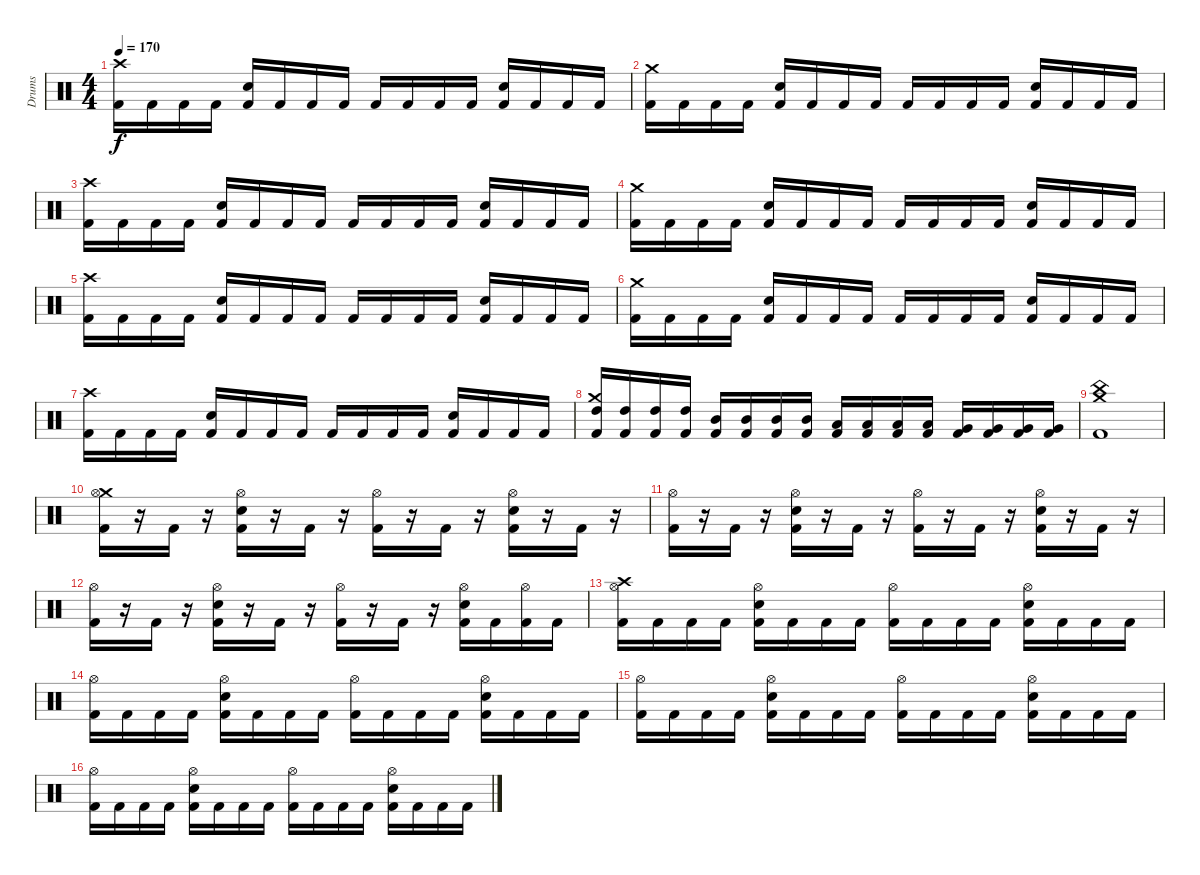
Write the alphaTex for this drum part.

\track ("Drums" "Drums") {instrument percussion}
\staff {score}
\articulation defaults
\ts (4 4)
\tempo 170
\clef neutral
\ks c
("Crash high (hit)" "Kick (hit) 2").16{dy f} "Kick (hit) 2".16 "Kick (hit) 2".16 "Kick (hit) 2".16 ("Electric Snare (hit)" "Kick (hit) 2").16 "Kick (hit) 2".16 "Kick (hit) 2".16 "Kick (hit) 2".16 "Kick (hit) 2".16 "Kick (hit) 2".16 "Kick (hit) 2".16 "Kick (hit) 2".16 ("Electric Snare (hit)" "Kick (hit) 2").16 "Kick (hit) 2".16 "Kick (hit) 2".16 "Kick (hit) 2".16 |
("Crash medium (hit)" "Kick (hit) 2").16 "Kick (hit) 2".16 "Kick (hit) 2".16 "Kick (hit) 2".16 ("Electric Snare (hit)" "Kick (hit) 2").16 "Kick (hit) 2".16 "Kick (hit) 2".16 "Kick (hit) 2".16 "Kick (hit) 2".16 "Kick (hit) 2".16 "Kick (hit) 2".16 "Kick (hit) 2".16 ("Electric Snare (hit)" "Kick (hit) 2").16 "Kick (hit) 2".16 "Kick (hit) 2".16 "Kick (hit) 2".16 |
("Crash high (hit)" "Kick (hit) 2").16 "Kick (hit) 2".16 "Kick (hit) 2".16 "Kick (hit) 2".16 ("Electric Snare (hit)" "Kick (hit) 2").16 "Kick (hit) 2".16 "Kick (hit) 2".16 "Kick (hit) 2".16 "Kick (hit) 2".16 "Kick (hit) 2".16 "Kick (hit) 2".16 "Kick (hit) 2".16 ("Electric Snare (hit)" "Kick (hit) 2").16 "Kick (hit) 2".16 "Kick (hit) 2".16 "Kick (hit) 2".16 |
("Crash medium (hit)" "Kick (hit) 2").16 "Kick (hit) 2".16 "Kick (hit) 2".16 "Kick (hit) 2".16 ("Electric Snare (hit)" "Kick (hit) 2").16 "Kick (hit) 2".16 "Kick (hit) 2".16 "Kick (hit) 2".16 "Kick (hit) 2".16 "Kick (hit) 2".16 "Kick (hit) 2".16 "Kick (hit) 2".16 ("Electric Snare (hit)" "Kick (hit) 2").16 "Kick (hit) 2".16 "Kick (hit) 2".16 "Kick (hit) 2".16 |
("Crash high (hit)" "Kick (hit) 2").16 "Kick (hit) 2".16 "Kick (hit) 2".16 "Kick (hit) 2".16 ("Electric Snare (hit)" "Kick (hit) 2").16 "Kick (hit) 2".16 "Kick (hit) 2".16 "Kick (hit) 2".16 "Kick (hit) 2".16 "Kick (hit) 2".16 "Kick (hit) 2".16 "Kick (hit) 2".16 ("Electric Snare (hit)" "Kick (hit) 2").16 "Kick (hit) 2".16 "Kick (hit) 2".16 "Kick (hit) 2".16 |
("Crash medium (hit)" "Kick (hit) 2").16 "Kick (hit) 2".16 "Kick (hit) 2".16 "Kick (hit) 2".16 ("Electric Snare (hit)" "Kick (hit) 2").16 "Kick (hit) 2".16 "Kick (hit) 2".16 "Kick (hit) 2".16 "Kick (hit) 2".16 "Kick (hit) 2".16 "Kick (hit) 2".16 "Kick (hit) 2".16 ("Electric Snare (hit)" "Kick (hit) 2").16 "Kick (hit) 2".16 "Kick (hit) 2".16 "Kick (hit) 2".16 |
("Crash high (hit)" "Kick (hit) 2").16 "Kick (hit) 2".16 "Kick (hit) 2".16 "Kick (hit) 2".16 ("Electric Snare (hit)" "Kick (hit) 2").16 "Kick (hit) 2".16 "Kick (hit) 2".16 "Kick (hit) 2".16 "Kick (hit) 2".16 "Kick (hit) 2".16 "Kick (hit) 2".16 "Kick (hit) 2".16 ("Electric Snare (hit)" "Kick (hit) 2").16 "Kick (hit) 2".16 "Kick (hit) 2".16 "Kick (hit) 2".16 |
("High Tom (hit)" "Crash medium (hit)" "Kick (hit) 2").16 ("High Tom (hit)" "Kick (hit) 2").16 ("High Tom (hit)" "Kick (hit) 2").16 ("High Tom (hit)" "Kick (hit) 2").16 ("Mid Tom (hit)" "Kick (hit) 2").16 ("Mid Tom (hit)" "Kick (hit) 2").16 ("Mid Tom (hit)" "Kick (hit) 2").16 ("Mid Tom (hit)" "Kick (hit) 2").16 ("Low Tom (hit)" "Kick (hit) 2").16 ("Low Tom (hit)" "Kick (hit) 2").16 ("Low Tom (hit)" "Kick (hit) 2").16 ("Low Tom (hit)" "Kick (hit) 2").16 ("Very Low Tom (hit)" "Kick (hit) 2").16 ("Very Low Tom (hit)" "Kick (hit) 2").16 ("Very Low Tom (hit)" "Kick (hit) 2").16 ("Very Low Tom (hit)" "Kick (hit) 2").16 |
("Crash medium (hit)" "China (hit)" "Kick (hit) 2").1 |
("Crash medium (hit)" "Hi-Hat (open)" "Kick (hit) 2").16 r.16 "Kick (hit) 2".16 r.16 ("Hi-Hat (open)" "Electric Snare (hit)" "Kick (hit) 2").16 r.16 "Kick (hit) 2".16 r.16 ("Hi-Hat (open)" "Kick (hit) 2").16 r.16 "Kick (hit) 2".16 r.16 ("Hi-Hat (open)" "Electric Snare (hit)" "Kick (hit) 2").16 r.16 "Kick (hit) 2".16 r.16 |
("Hi-Hat (open)" "Kick (hit) 2").16 r.16 "Kick (hit) 2".16 r.16 ("Hi-Hat (open)" "Electric Snare (hit)" "Kick (hit) 2").16 r.16 "Kick (hit) 2".16 r.16 ("Hi-Hat (open)" "Kick (hit) 2").16 r.16 "Kick (hit) 2".16 r.16 ("Hi-Hat (open)" "Electric Snare (hit)" "Kick (hit) 2").16 r.16 "Kick (hit) 2".16 r.16 |
("Hi-Hat (open)" "Kick (hit) 2").16 r.16 "Kick (hit) 2".16 r.16 ("Hi-Hat (open)" "Electric Snare (hit)" "Kick (hit) 2").16 r.16 "Kick (hit) 2".16 r.16 ("Hi-Hat (open)" "Kick (hit) 2").16 r.16 "Kick (hit) 2".16 r.16 ("Hi-Hat (open)" "Electric Snare (hit)" "Kick (hit) 2").16 "Kick (hit) 2".16 ("Hi-Hat (open)" "Kick (hit) 2").16 "Kick (hit) 2".16 |
("Crash high (hit)" "Hi-Hat (open)" "Kick (hit) 2").16 "Kick (hit) 2".16 "Kick (hit) 2".16 "Kick (hit) 2".16 ("Hi-Hat (open)" "Electric Snare (hit)" "Kick (hit) 2").16 "Kick (hit) 2".16 "Kick (hit) 2".16 "Kick (hit) 2".16 ("Hi-Hat (open)" "Kick (hit) 2").16 "Kick (hit) 2".16 "Kick (hit) 2".16 "Kick (hit) 2".16 ("Hi-Hat (open)" "Electric Snare (hit)" "Kick (hit) 2").16 "Kick (hit) 2".16 "Kick (hit) 2".16 "Kick (hit) 2".16 |
("Hi-Hat (open)" "Kick (hit) 2").16 "Kick (hit) 2".16 "Kick (hit) 2".16 "Kick (hit) 2".16 ("Hi-Hat (open)" "Electric Snare (hit)" "Kick (hit) 2").16 "Kick (hit) 2".16 "Kick (hit) 2".16 "Kick (hit) 2".16 ("Hi-Hat (open)" "Kick (hit) 2").16 "Kick (hit) 2".16 "Kick (hit) 2".16 "Kick (hit) 2".16 ("Hi-Hat (open)" "Electric Snare (hit)" "Kick (hit) 2").16 "Kick (hit) 2".16 "Kick (hit) 2".16 "Kick (hit) 2".16 |
("Hi-Hat (open)" "Kick (hit) 2").16 "Kick (hit) 2".16 "Kick (hit) 2".16 "Kick (hit) 2".16 ("Hi-Hat (open)" "Electric Snare (hit)" "Kick (hit) 2").16 "Kick (hit) 2".16 "Kick (hit) 2".16 "Kick (hit) 2".16 ("Hi-Hat (open)" "Kick (hit) 2").16 "Kick (hit) 2".16 "Kick (hit) 2".16 "Kick (hit) 2".16 ("Hi-Hat (open)" "Electric Snare (hit)" "Kick (hit) 2").16 "Kick (hit) 2".16 "Kick (hit) 2".16 "Kick (hit) 2".16 |
("Hi-Hat (open)" "Kick (hit) 2").16 "Kick (hit) 2".16 "Kick (hit) 2".16 "Kick (hit) 2".16 ("Hi-Hat (open)" "Electric Snare (hit)" "Kick (hit) 2").16 "Kick (hit) 2".16 "Kick (hit) 2".16 "Kick (hit) 2".16 ("Hi-Hat (open)" "Kick (hit) 2").16 "Kick (hit) 2".16 "Kick (hit) 2".16 "Kick (hit) 2".16 ("Hi-Hat (open)" "Electric Snare (hit)" "Kick (hit) 2").16 "Kick (hit) 2".16 "Kick (hit) 2".16 "Kick (hit) 2".16
